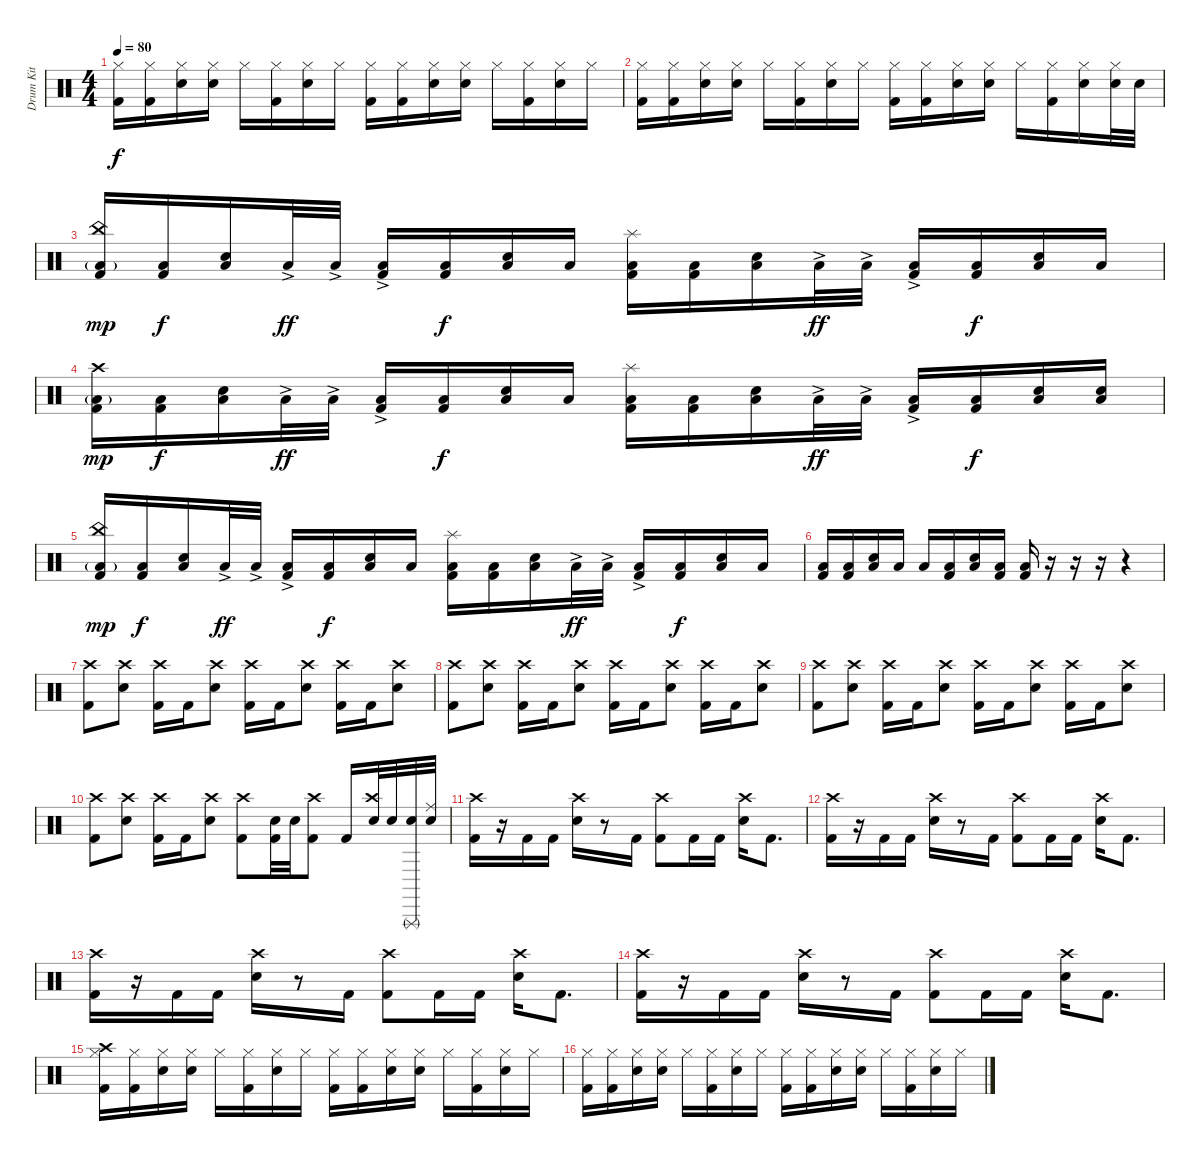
\track ("Drum Kit" "Drum Kit") {instrument percussion}
\staff {score}
\articulation defaults
\ts (4 4)
\tempo 80
\clef neutral
\ks c
("Hi-Hat (closed)" "Kick (hit) 2").16{dy f} ("Hi-Hat (closed)" "Kick (hit) 2").16 ("Hi-Hat (closed)" "Snare (hit) 2").16 ("Hi-Hat (closed)" "Snare (hit) 2").16 "Hi-Hat (closed)".16 ("Hi-Hat (closed)" "Kick (hit) 2").16 ("Hi-Hat (closed)" "Snare (hit) 2").16 "Hi-Hat (closed)".16 ("Hi-Hat (closed)" "Kick (hit) 2").16 ("Hi-Hat (closed)" "Kick (hit) 2").16 ("Hi-Hat (closed)" "Snare (hit) 2").16 ("Hi-Hat (closed)" "Snare (hit) 2").16 "Hi-Hat (closed)".16 ("Hi-Hat (closed)" "Kick (hit) 2").16 ("Hi-Hat (closed)" "Snare (hit) 2").16 "Hi-Hat (closed)".16 |
("Hi-Hat (closed)" "Kick (hit) 2").16 ("Hi-Hat (closed)" "Kick (hit) 2").16 ("Hi-Hat (closed)" "Snare (hit) 2").16 ("Hi-Hat (closed)" "Snare (hit) 2").16 "Hi-Hat (closed)".16 ("Hi-Hat (closed)" "Kick (hit) 2").16 ("Hi-Hat (closed)" "Snare (hit) 2").16 "Hi-Hat (closed)".16 ("Hi-Hat (closed)" "Kick (hit) 2").16 ("Hi-Hat (closed)" "Kick (hit) 2").16 ("Hi-Hat (closed)" "Snare (hit) 2").16 ("Hi-Hat (closed)" "Snare (hit) 2").16 "Hi-Hat (closed)".16 ("Hi-Hat (closed)" "Kick (hit) 2").16 ("Hi-Hat (closed)" "Snare (hit) 2").16 ("Hi-Hat (closed)" "Snare (hit) 2").32 "Snare (hit) 2".32 |
("China (hit)" "Low Floor Tom (hit)"{g} "Kick (hit) 2").16{dy mp} ("Low Floor Tom (hit)" "Kick (hit) 2").16{dy f} ("Low Floor Tom (hit)" "Snare (hit) 2").16 "Low Floor Tom (hit)"{ac}.32{dy ff} "Low Floor Tom (hit)"{ac}.32 ("Low Floor Tom (hit)"{ac} "Kick (hit) 2").16 ("Low Floor Tom (hit)" "Kick (hit) 2").16{dy f} ("Low Floor Tom (hit)" "Snare (hit) 2").16 "Low Floor Tom (hit)".16 ("Splash (hit)" "Low Floor Tom (hit)" "Kick (hit) 2").16 ("Low Floor Tom (hit)" "Kick (hit) 2").16 ("Low Floor Tom (hit)" "Snare (hit) 2").16 "Low Floor Tom (hit)"{ac}.32{dy ff} "Low Floor Tom (hit)"{ac}.32 ("Low Floor Tom (hit)"{ac} "Kick (hit) 2").16 ("Low Floor Tom (hit)" "Kick (hit) 2").16{dy f} ("Low Floor Tom (hit)" "Snare (hit) 2").16 "Low Floor Tom (hit)".16 |
("Crash high (hit)" "Low Floor Tom (hit)"{g} "Kick (hit) 2").16{dy mp} ("Low Floor Tom (hit)" "Kick (hit) 2").16{dy f} ("Low Floor Tom (hit)" "Snare (hit) 2").16 "Low Floor Tom (hit)"{ac}.32{dy ff} "Low Floor Tom (hit)"{ac}.32 ("Low Floor Tom (hit)"{ac} "Kick (hit) 2").16 ("Low Floor Tom (hit)" "Kick (hit) 2").16{dy f} ("Low Floor Tom (hit)" "Snare (hit) 2").16 "Low Floor Tom (hit)".16 ("Splash (hit)" "Low Floor Tom (hit)" "Kick (hit) 2").16 ("Low Floor Tom (hit)" "Kick (hit) 2").16 ("Low Floor Tom (hit)" "Snare (hit) 2").16 "Low Floor Tom (hit)"{ac}.32{dy ff} "Low Floor Tom (hit)"{ac}.32 ("Low Floor Tom (hit)"{ac} "Kick (hit) 2").16 ("Low Floor Tom (hit)" "Kick (hit) 2").16{dy f} ("Low Floor Tom (hit)" "Snare (hit) 2").16 ("Low Floor Tom (hit)" "Snare (hit) 2").16 |
("China (hit)" "Low Floor Tom (hit)"{g} "Kick (hit) 2").16{dy mp} ("Low Floor Tom (hit)" "Kick (hit) 2").16{dy f} ("Low Floor Tom (hit)" "Snare (hit) 2").16 "Low Floor Tom (hit)"{ac}.32{dy ff} "Low Floor Tom (hit)"{ac}.32 ("Low Floor Tom (hit)"{ac} "Kick (hit) 2").16 ("Low Floor Tom (hit)" "Kick (hit) 2").16{dy f} ("Low Floor Tom (hit)" "Snare (hit) 2").16 "Low Floor Tom (hit)".16 ("Splash (hit)" "Low Floor Tom (hit)" "Kick (hit) 2").16 ("Low Floor Tom (hit)" "Kick (hit) 2").16 ("Low Floor Tom (hit)" "Snare (hit) 2").16 "Low Floor Tom (hit)"{ac}.32{dy ff} "Low Floor Tom (hit)"{ac}.32 ("Low Floor Tom (hit)"{ac} "Kick (hit) 2").16 ("Low Floor Tom (hit)" "Kick (hit) 2").16{dy f} ("Low Floor Tom (hit)" "Snare (hit) 2").16 "Low Floor Tom (hit)".16 |
("Low Floor Tom (hit)" "Kick (hit) 2").16 ("Low Floor Tom (hit)" "Kick (hit) 2").16 ("Low Floor Tom (hit)" "Snare (hit) 2").16 "Low Floor Tom (hit)".16 "Low Floor Tom (hit)".16 ("Low Floor Tom (hit)" "Kick (hit) 2").16 ("Low Floor Tom (hit)" "Snare (hit) 2").16 ("Low Floor Tom (hit)" "Kick (hit) 2").16 ("Low Floor Tom (hit)" "Kick (hit) 2").16 r.16 r.16 r.16 r.4 |
("Crash high (hit)" "Kick (hit) 2").8 ("Crash high (hit)" "Snare (hit) 2").8 ("Crash high (hit)" "Kick (hit) 2").16 "Kick (hit) 2".16 ("Crash high (hit)" "Snare (hit) 2").8 ("Crash high (hit)" "Kick (hit) 2").16 "Kick (hit) 2".16 ("Crash high (hit)" "Snare (hit) 2").8 ("Crash high (hit)" "Kick (hit) 2").16 "Kick (hit) 2".16 ("Crash high (hit)" "Snare (hit) 2").8 |
("Crash high (hit)" "Kick (hit) 2").8 ("Crash high (hit)" "Snare (hit) 2").8 ("Crash high (hit)" "Kick (hit) 2").16 "Kick (hit) 2".16 ("Crash high (hit)" "Snare (hit) 2").8 ("Crash high (hit)" "Kick (hit) 2").16 "Kick (hit) 2".16 ("Crash high (hit)" "Snare (hit) 2").8 ("Crash high (hit)" "Kick (hit) 2").16 "Kick (hit) 2".16 ("Crash high (hit)" "Snare (hit) 2").8 |
("Crash high (hit)" "Kick (hit) 2").8 ("Crash high (hit)" "Snare (hit) 2").8 ("Crash high (hit)" "Kick (hit) 2").16 "Kick (hit) 2".16 ("Crash high (hit)" "Snare (hit) 2").8 ("Crash high (hit)" "Kick (hit) 2").16 "Kick (hit) 2".16 ("Crash high (hit)" "Snare (hit) 2").8 ("Crash high (hit)" "Kick (hit) 2").16 "Kick (hit) 2".16 ("Crash high (hit)" "Snare (hit) 2").8 |
("Crash high (hit)" "Kick (hit) 2").8 ("Crash high (hit)" "Snare (hit) 2").8 ("Crash high (hit)" "Kick (hit) 2").16 "Kick (hit) 2".16 ("Crash high (hit)" "Snare (hit) 2").8 ("Crash high (hit)" "Kick (hit) 2").8 ("Snare (hit) 2" "Kick (hit) 2").32 "Snare (hit) 2".32 ("Crash high (hit)" "Kick (hit) 2").8 "Kick (hit) 2".16 ("Snare (hit) 2" "Crash high (hit)").32 "Snare (hit) 2".32 ("Snare (hit) 2" "Triangle (rnute)").32 ("Snare (hit) 2" "Ride (middle)").32 |
("Crash high (hit)" "Kick (hit) 2").16 r.16 "Kick (hit) 2".16 "Kick (hit) 2".16 ("Crash high (hit)" "Snare (hit) 2").16 r.8 "Kick (hit) 2".16 ("Kick (hit) 2" "Crash high (hit)").8 "Kick (hit) 2".16 "Kick (hit) 2".16 ("Crash high (hit)" "Snare (hit) 2").16 "Kick (hit) 2".8{d} |
("Crash high (hit)" "Kick (hit) 2").16 r.16 "Kick (hit) 2".16 "Kick (hit) 2".16 ("Crash high (hit)" "Snare (hit) 2").16 r.8 "Kick (hit) 2".16 ("Kick (hit) 2" "Crash high (hit)").8 "Kick (hit) 2".16 "Kick (hit) 2".16 ("Crash high (hit)" "Snare (hit) 2").16 "Kick (hit) 2".8{d} |
("Crash high (hit)" "Kick (hit) 2").16 r.16 "Kick (hit) 2".16 "Kick (hit) 2".16 ("Crash high (hit)" "Snare (hit) 2").16 r.8 "Kick (hit) 2".16 ("Kick (hit) 2" "Crash high (hit)").8 "Kick (hit) 2".16 "Kick (hit) 2".16 ("Crash high (hit)" "Snare (hit) 2").16 "Kick (hit) 2".8{d} |
("Crash high (hit)" "Kick (hit) 2").16 r.16 "Kick (hit) 2".16 "Kick (hit) 2".16 ("Crash high (hit)" "Snare (hit) 2").16 r.8 "Kick (hit) 2".16 ("Kick (hit) 2" "Crash high (hit)").8 "Kick (hit) 2".16 "Kick (hit) 2".16 ("Crash high (hit)" "Snare (hit) 2").16 "Kick (hit) 2".8{d} |
("Crash high (hit)" "Hi-Hat (closed)" "Kick (hit) 2").16 ("Hi-Hat (closed)" "Kick (hit) 2").16 ("Hi-Hat (closed)" "Snare (hit) 2").16 ("Hi-Hat (closed)" "Snare (hit) 2").16 "Hi-Hat (closed)".16 ("Hi-Hat (closed)" "Kick (hit) 2").16 ("Hi-Hat (closed)" "Snare (hit) 2").16 "Hi-Hat (closed)".16 ("Hi-Hat (closed)" "Kick (hit) 2").16 ("Hi-Hat (closed)" "Kick (hit) 2").16 ("Hi-Hat (closed)" "Snare (hit) 2").16 ("Hi-Hat (closed)" "Snare (hit) 2").16 "Hi-Hat (closed)".16 ("Hi-Hat (closed)" "Kick (hit) 2").16 ("Hi-Hat (closed)" "Snare (hit) 2").16 "Hi-Hat (closed)".16 |
("Hi-Hat (closed)" "Kick (hit) 2").16 ("Hi-Hat (closed)" "Kick (hit) 2").16 ("Hi-Hat (closed)" "Snare (hit) 2").16 ("Hi-Hat (closed)" "Snare (hit) 2").16 "Hi-Hat (closed)".16 ("Hi-Hat (closed)" "Kick (hit) 2").16 ("Hi-Hat (closed)" "Snare (hit) 2").16 "Hi-Hat (closed)".16 ("Hi-Hat (closed)" "Kick (hit) 2").16 ("Hi-Hat (closed)" "Kick (hit) 2").16 ("Hi-Hat (closed)" "Snare (hit) 2").16 ("Hi-Hat (closed)" "Snare (hit) 2").16 "Hi-Hat (closed)".16 ("Hi-Hat (closed)" "Kick (hit) 2").16 ("Hi-Hat (closed)" "Snare (hit) 2").16 "Hi-Hat (closed)".16
